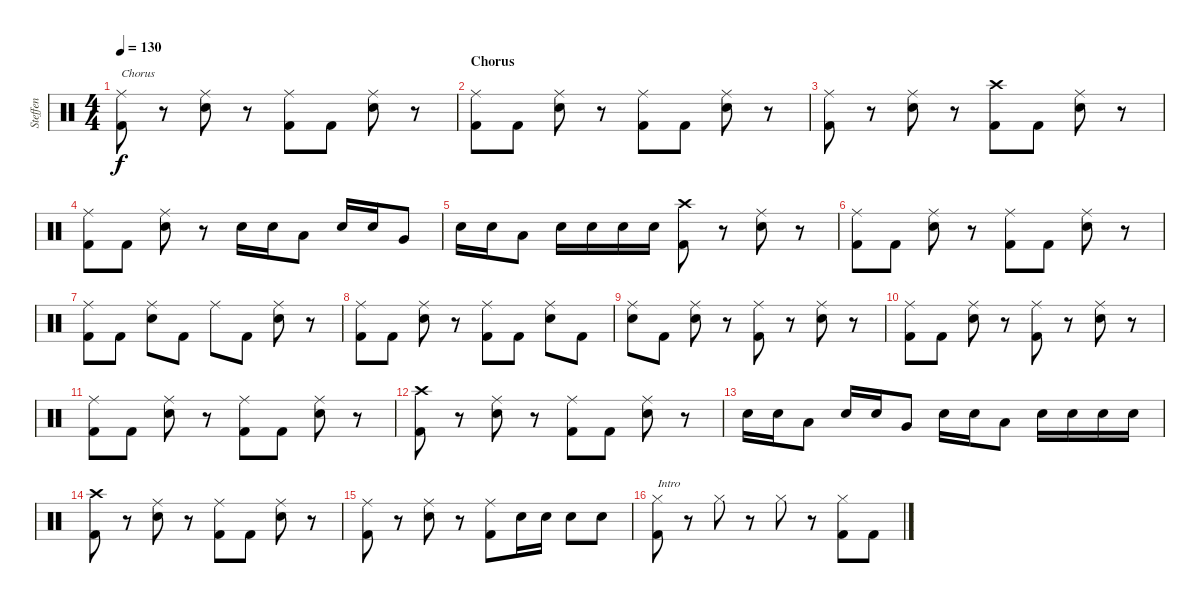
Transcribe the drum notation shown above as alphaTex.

\track ("Steffen" "Steffen") {instrument percussion}
\staff {score}
\articulation defaults
\ts (4 4)
\tempo 130
\clef neutral
\ks c
("Ride (middle)" "Kick (hit) 2").8{txt "Chorus" dy f} r.8 ("Ride (middle)" "Snare (hit) 2").8 r.8 ("Ride (middle)" "Kick (hit) 2").8 "Kick (hit) 2".8 ("Ride (middle)" "Snare (hit) 2").8 r.8 |
\section ("" "Chorus")
("Ride (middle)" "Kick (hit) 2").8 "Kick (hit) 2".8 ("Ride (middle)" "Snare (hit) 2").8 r.8 ("Ride (middle)" "Kick (hit) 2").8 "Kick (hit) 2".8 ("Ride (middle)" "Snare (hit) 2").8 r.8 |
("Ride (middle)" "Kick (hit) 2").8 r.8 ("Ride (middle)" "Snare (hit) 2").8 r.8 ("Crash high (hit)" "Kick (hit) 2").8 "Kick (hit) 2".8 ("Ride (middle)" "Snare (hit) 2").8 r.8 |
("Ride (middle)" "Kick (hit) 2").8 "Kick (hit) 2".8 ("Ride (middle)" "Snare (hit) 2").8 r.8 "Snare (hit) 2".16 "Snare (hit) 2".16 "Low Tom (hit)".8 "Snare (hit) 2".16 "Snare (hit) 2".16 "Very Low Tom (hit)".8 |
"Snare (hit) 2".16 "Snare (hit) 2".16 "Low Floor Tom (hit)".8 "Snare (hit) 2".16 "Snare (hit) 2".16 "Snare (hit) 2".16 "Snare (hit) 2".16 ("Crash high (hit)" "Kick (hit) 2").8 r.8 ("Ride (middle)" "Snare (hit) 2").8 r.8 |
("Ride (middle)" "Kick (hit) 2").8 "Kick (hit) 2".8 ("Ride (middle)" "Snare (hit) 2").8 r.8 ("Ride (middle)" "Kick (hit) 2").8 "Kick (hit) 2".8 ("Ride (middle)" "Snare (hit) 2").8 r.8 |
("Ride (middle)" "Kick (hit) 2").8 "Kick (hit) 2".8 ("Ride (middle)" "Snare (hit) 2").8 "Kick (hit) 2".8 "Ride (middle)".8 "Kick (hit) 2".8 ("Ride (middle)" "Snare (hit) 2").8 r.8 |
("Ride (middle)" "Kick (hit) 2").8 "Kick (hit) 2".8 ("Ride (middle)" "Snare (hit) 2").8 r.8 ("Ride (middle)" "Kick (hit) 2").8 "Kick (hit) 2".8 ("Ride (middle)" "Snare (hit) 2").8 "Kick (hit) 2".8 |
("Ride (middle)" "Snare (hit) 2").8 "Kick (hit) 2".8 ("Ride (middle)" "Snare (hit) 2").8 r.8 ("Ride (middle)" "Kick (hit) 2").8 r.8 ("Ride (middle)" "Snare (hit) 2").8 r.8 |
("Ride (middle)" "Kick (hit) 2").8 "Kick (hit) 2".8 ("Ride (middle)" "Snare (hit) 2").8 r.8 ("Ride (middle)" "Kick (hit) 2").8 r.8 ("Ride (middle)" "Snare (hit) 2").8 r.8 |
("Ride (middle)" "Kick (hit) 2").8 "Kick (hit) 2".8 ("Ride (middle)" "Snare (hit) 2").8 r.8 ("Ride (middle)" "Kick (hit) 2").8 "Kick (hit) 2".8 ("Ride (middle)" "Snare (hit) 2").8 r.8 |
("Crash high (hit)" "Kick (hit) 2").8 r.8 ("Ride (middle)" "Snare (hit) 2").8 r.8 ("Ride (middle)" "Kick (hit) 2").8 "Kick (hit) 2".8 ("Ride (middle)" "Snare (hit) 2").8 r.8 |
"Snare (hit) 2".16 "Snare (hit) 2".16 "Low Tom (hit)".8 "Snare (hit) 2".16 "Snare (hit) 2".16 "Very Low Tom (hit)".8 "Snare (hit) 2".16 "Snare (hit) 2".16 "Low Floor Tom (hit)".8 "Snare (hit) 2".16 "Snare (hit) 2".16 "Snare (hit) 2".16 "Snare (hit) 2".16 |
("Crash high (hit)" "Kick (hit) 2").8 r.8 ("Ride (middle)" "Snare (hit) 2").8 r.8 ("Ride (middle)" "Kick (hit) 2").8 "Kick (hit) 2".8 ("Ride (middle)" "Snare (hit) 2").8 r.8 |
("Ride (middle)" "Kick (hit) 2").8 r.8 ("Ride (middle)" "Snare (hit) 2").8 r.8 ("Ride (middle)" "Kick (hit) 2").8 "Snare (hit) 2".16 "Snare (hit) 2".16 "Snare (hit) 2".8 "Snare (hit) 2".8 |
("Hi-Hat (closed)" "Kick (hit) 2").8{txt "Intro"} r.8 "Hi-Hat (closed)".8 r.8 "Hi-Hat (closed)".8 r.8 ("Hi-Hat (closed)" "Kick (hit) 2").8 "Kick (hit) 2".8
